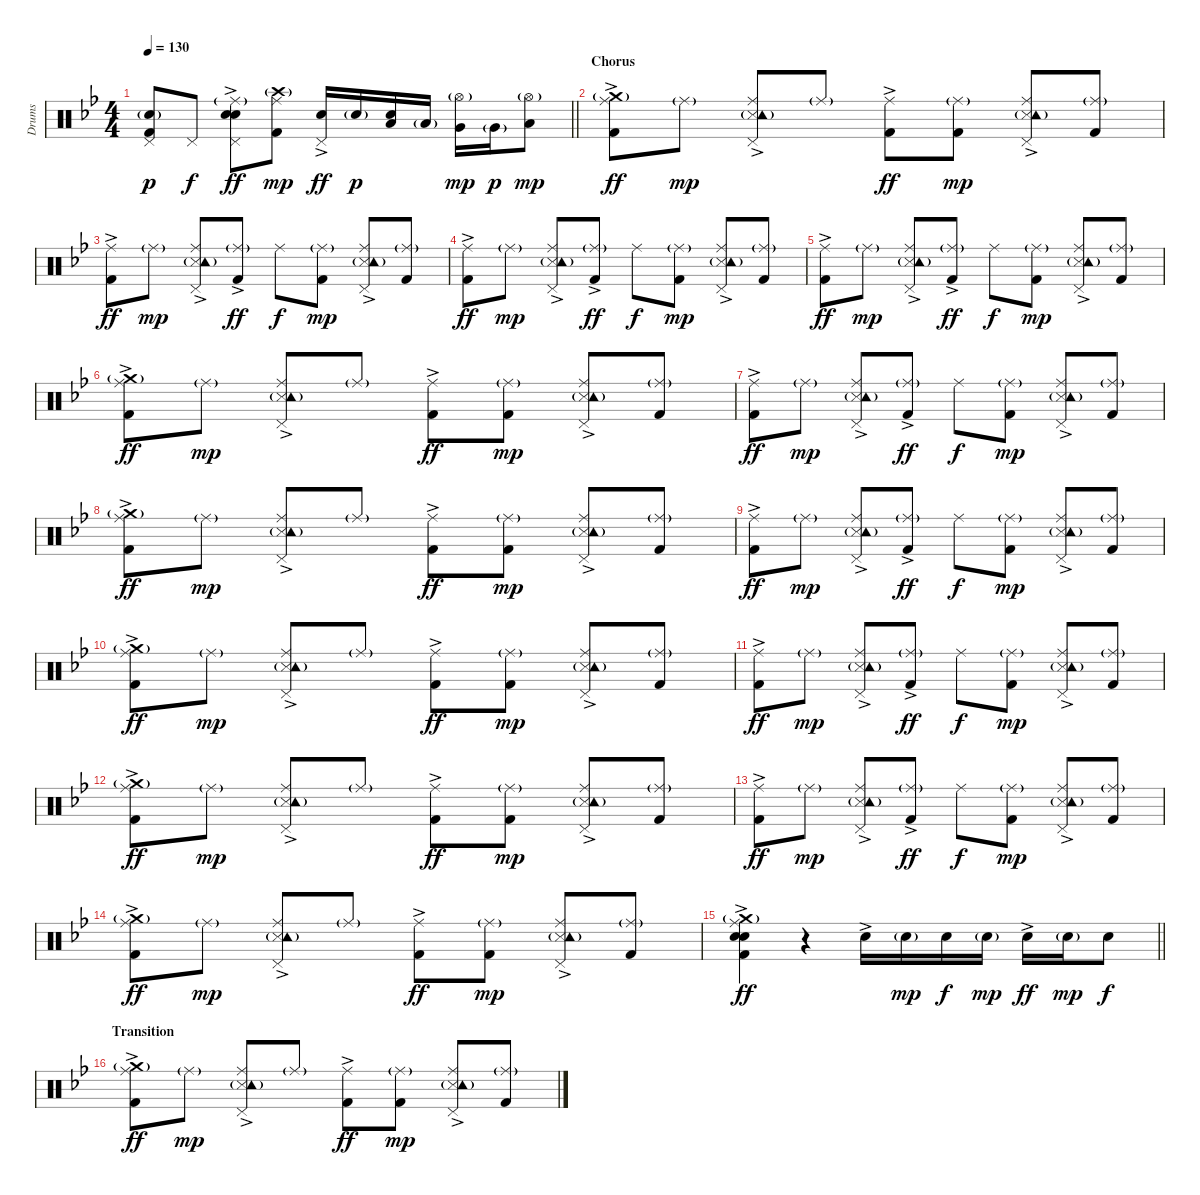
\track ("Drums" "Drums") {instrument percussion}
\staff {score}
\articulation defaults
\ts (4 4)
\tempo 130
\clef neutral
\barLineRight lightlight
\ks bb
("Pedal Hi-Hat (hit)" "Electric Snare (hit)"{g} "Kick (hit) 2").8{dy p} "Pedal Hi-Hat (hit)".8{dy f} ("Ride (middle)"{g} "Pedal Hi-Hat (hit)" "Electric Snare (hit)" "Snare (hit) 2"{ac}).8{dy ff} ("Ride (middle)" "Crash high (hit)"{g} "Kick (hit) 2").8{dy mp} ("Pedal Hi-Hat (hit)" "Electric Snare (hit)"{ac}).16{dy ff} "Electric Snare (hit)"{g}.16{dy p} ("Low Tom (hit)" "Electric Snare (hit)").16 "Low Tom (hit)"{g}.16 ("Hi-Hat (open)"{g} "Very Low Tom (hit)").16{dy mp} "Very Low Tom (hit)"{g}.16{dy p} ("Hi-Hat (open)"{g} "Low Floor Tom (hit)").8{dy mp} |
\section ("" "Chorus")
("Ride (middle)" "Crash medium (hit)"{g} "Kick (hit) 2"{ac}).8{dy ff} "Ride (middle)"{g}.8{dy mp} ("Ride (middle)" "Pedal Hi-Hat (hit)" "Snare (side stick) 3"{ac} "Tambourine (hit)"{g}).8 "Ride (middle)"{g}.8 ("Ride (middle)" "Kick (hit) 2"{ac}).8{dy ff} ("Ride (middle)"{g} "Kick (hit) 2").8{dy mp} ("Ride (middle)" "Pedal Hi-Hat (hit)" "Snare (side stick) 3"{ac} "Tambourine (hit)"{g}).8 ("Ride (middle)"{g} "Kick (hit) 2").8 |
("Ride (middle)" "Kick (hit) 2"{ac}).8{dy ff} "Ride (middle)"{g}.8{dy mp} ("Ride (middle)" "Pedal Hi-Hat (hit)" "Snare (side stick) 3"{ac} "Tambourine (hit)"{g}).8 ("Ride (middle)"{g} "Kick (hit) 2"{ac}).8{dy ff} "Ride (middle)".8{dy f} ("Ride (middle)"{g} "Kick (hit) 2").8{dy mp} ("Ride (middle)" "Pedal Hi-Hat (hit)" "Snare (side stick) 3"{ac} "Tambourine (hit)"{g}).8 ("Ride (middle)"{g} "Kick (hit) 2").8 |
("Ride (middle)" "Kick (hit) 2"{ac}).8{dy ff} "Ride (middle)"{g}.8{dy mp} ("Ride (middle)" "Pedal Hi-Hat (hit)" "Snare (side stick) 3"{ac} "Tambourine (hit)"{g}).8 ("Ride (middle)"{g} "Kick (hit) 2"{ac}).8{dy ff} "Ride (middle)".8{dy f} ("Ride (middle)"{g} "Kick (hit) 2").8{dy mp} ("Ride (middle)" "Pedal Hi-Hat (hit)" "Snare (side stick) 3"{ac} "Tambourine (hit)"{g}).8 ("Ride (middle)"{g} "Kick (hit) 2").8 |
("Ride (middle)" "Kick (hit) 2"{ac}).8{dy ff} "Ride (middle)"{g}.8{dy mp} ("Ride (middle)" "Pedal Hi-Hat (hit)" "Snare (side stick) 3"{ac} "Tambourine (hit)"{g}).8 ("Ride (middle)"{g} "Kick (hit) 2"{ac}).8{dy ff} "Ride (middle)".8{dy f} ("Ride (middle)"{g} "Kick (hit) 2").8{dy mp} ("Ride (middle)" "Pedal Hi-Hat (hit)" "Snare (side stick) 3"{ac} "Tambourine (hit)"{g}).8 ("Ride (middle)"{g} "Kick (hit) 2").8 |
("Ride (middle)" "Crash medium (hit)"{g} "Kick (hit) 2"{ac}).8{dy ff} "Ride (middle)"{g}.8{dy mp} ("Ride (middle)" "Pedal Hi-Hat (hit)" "Snare (side stick) 3"{ac} "Tambourine (hit)"{g}).8 "Ride (middle)"{g}.8 ("Ride (middle)" "Kick (hit) 2"{ac}).8{dy ff} ("Ride (middle)"{g} "Kick (hit) 2").8{dy mp} ("Ride (middle)" "Pedal Hi-Hat (hit)" "Snare (side stick) 3"{ac} "Tambourine (hit)"{g}).8 ("Ride (middle)"{g} "Kick (hit) 2").8 |
("Ride (middle)" "Kick (hit) 2"{ac}).8{dy ff} "Ride (middle)"{g}.8{dy mp} ("Ride (middle)" "Pedal Hi-Hat (hit)" "Snare (side stick) 3"{ac} "Tambourine (hit)"{g}).8 ("Ride (middle)"{g} "Kick (hit) 2"{ac}).8{dy ff} "Ride (middle)".8{dy f} ("Ride (middle)"{g} "Kick (hit) 2").8{dy mp} ("Ride (middle)" "Pedal Hi-Hat (hit)" "Snare (side stick) 3"{ac} "Tambourine (hit)"{g}).8 ("Ride (middle)"{g} "Kick (hit) 2").8 |
("Ride (middle)" "Crash medium (hit)"{g} "Kick (hit) 2"{ac}).8{dy ff} "Ride (middle)"{g}.8{dy mp} ("Ride (middle)" "Pedal Hi-Hat (hit)" "Snare (side stick) 3"{ac} "Tambourine (hit)"{g}).8 "Ride (middle)"{g}.8 ("Ride (middle)" "Kick (hit) 2"{ac}).8{dy ff} ("Ride (middle)"{g} "Kick (hit) 2").8{dy mp} ("Ride (middle)" "Pedal Hi-Hat (hit)" "Snare (side stick) 3"{ac} "Tambourine (hit)"{g}).8 ("Ride (middle)"{g} "Kick (hit) 2").8 |
("Ride (middle)" "Kick (hit) 2"{ac}).8{dy ff} "Ride (middle)"{g}.8{dy mp} ("Ride (middle)" "Pedal Hi-Hat (hit)" "Snare (side stick) 3"{ac} "Tambourine (hit)"{g}).8 ("Ride (middle)"{g} "Kick (hit) 2"{ac}).8{dy ff} "Ride (middle)".8{dy f} ("Ride (middle)"{g} "Kick (hit) 2").8{dy mp} ("Ride (middle)" "Pedal Hi-Hat (hit)" "Snare (side stick) 3"{ac} "Tambourine (hit)"{g}).8 ("Ride (middle)"{g} "Kick (hit) 2").8 |
("Ride (middle)" "Crash medium (hit)"{g} "Kick (hit) 2"{ac}).8{dy ff} "Ride (middle)"{g}.8{dy mp} ("Ride (middle)" "Pedal Hi-Hat (hit)" "Snare (side stick) 3"{ac} "Tambourine (hit)"{g}).8 "Ride (middle)"{g}.8 ("Ride (middle)" "Kick (hit) 2"{ac}).8{dy ff} ("Ride (middle)"{g} "Kick (hit) 2").8{dy mp} ("Ride (middle)" "Pedal Hi-Hat (hit)" "Snare (side stick) 3"{ac} "Tambourine (hit)"{g}).8 ("Ride (middle)"{g} "Kick (hit) 2").8 |
("Ride (middle)" "Kick (hit) 2"{ac}).8{dy ff} "Ride (middle)"{g}.8{dy mp} ("Ride (middle)" "Pedal Hi-Hat (hit)" "Snare (side stick) 3"{ac} "Tambourine (hit)"{g}).8 ("Ride (middle)"{g} "Kick (hit) 2"{ac}).8{dy ff} "Ride (middle)".8{dy f} ("Ride (middle)"{g} "Kick (hit) 2").8{dy mp} ("Ride (middle)" "Pedal Hi-Hat (hit)" "Snare (side stick) 3"{ac} "Tambourine (hit)"{g}).8 ("Ride (middle)"{g} "Kick (hit) 2").8 |
("Ride (middle)" "Crash medium (hit)"{g} "Kick (hit) 2"{ac}).8{dy ff} "Ride (middle)"{g}.8{dy mp} ("Ride (middle)" "Pedal Hi-Hat (hit)" "Snare (side stick) 3"{ac} "Tambourine (hit)"{g}).8 "Ride (middle)"{g}.8 ("Ride (middle)" "Kick (hit) 2"{ac}).8{dy ff} ("Ride (middle)"{g} "Kick (hit) 2").8{dy mp} ("Ride (middle)" "Pedal Hi-Hat (hit)" "Snare (side stick) 3"{ac} "Tambourine (hit)"{g}).8 ("Ride (middle)"{g} "Kick (hit) 2").8 |
("Ride (middle)" "Kick (hit) 2"{ac}).8{dy ff} "Ride (middle)"{g}.8{dy mp} ("Ride (middle)" "Pedal Hi-Hat (hit)" "Snare (side stick) 3"{ac} "Tambourine (hit)"{g}).8 ("Ride (middle)"{g} "Kick (hit) 2"{ac}).8{dy ff} "Ride (middle)".8{dy f} ("Ride (middle)"{g} "Kick (hit) 2").8{dy mp} ("Ride (middle)" "Pedal Hi-Hat (hit)" "Snare (side stick) 3"{ac} "Tambourine (hit)"{g}).8 ("Ride (middle)"{g} "Kick (hit) 2").8 |
("Ride (middle)" "Crash medium (hit)"{g} "Kick (hit) 2"{ac}).8{dy ff} "Ride (middle)"{g}.8{dy mp} ("Ride (middle)" "Pedal Hi-Hat (hit)" "Snare (side stick) 3"{ac} "Tambourine (hit)"{g}).8 "Ride (middle)"{g}.8 ("Ride (middle)" "Kick (hit) 2"{ac}).8{dy ff} ("Ride (middle)"{g} "Kick (hit) 2").8{dy mp} ("Ride (middle)" "Pedal Hi-Hat (hit)" "Snare (side stick) 3"{ac} "Tambourine (hit)"{g}).8 ("Ride (middle)"{g} "Kick (hit) 2").8 |
\barLineRight lightlight
("Ride (middle)" "Crash medium (hit)"{g} "Electric Snare (hit)" "Snare (hit) 2" "Kick (hit) 2"{ac}).4{dy ff} r.4 "Electric Snare (hit)"{ac}.16 "Electric Snare (hit)"{g}.16{dy mp} "Electric Snare (hit)".16{dy f} "Electric Snare (hit)"{g}.16{dy mp} "Electric Snare (hit)"{ac}.16{dy ff} "Electric Snare (hit)"{g}.16{dy mp} "Electric Snare (hit)".8{dy f} |
\section ("" "Transition")
("Ride (middle)" "Crash medium (hit)"{g} "Kick (hit) 2"{ac}).8{dy ff} "Ride (middle)"{g}.8{dy mp} ("Ride (middle)" "Pedal Hi-Hat (hit)" "Snare (side stick) 3"{ac} "Tambourine (hit)"{g}).8 "Ride (middle)"{g}.8 ("Ride (middle)" "Kick (hit) 2"{ac}).8{dy ff} ("Ride (middle)"{g} "Kick (hit) 2").8{dy mp} ("Ride (middle)" "Pedal Hi-Hat (hit)" "Snare (side stick) 3"{ac} "Tambourine (hit)"{g}).8 ("Ride (middle)"{g} "Kick (hit) 2").8
